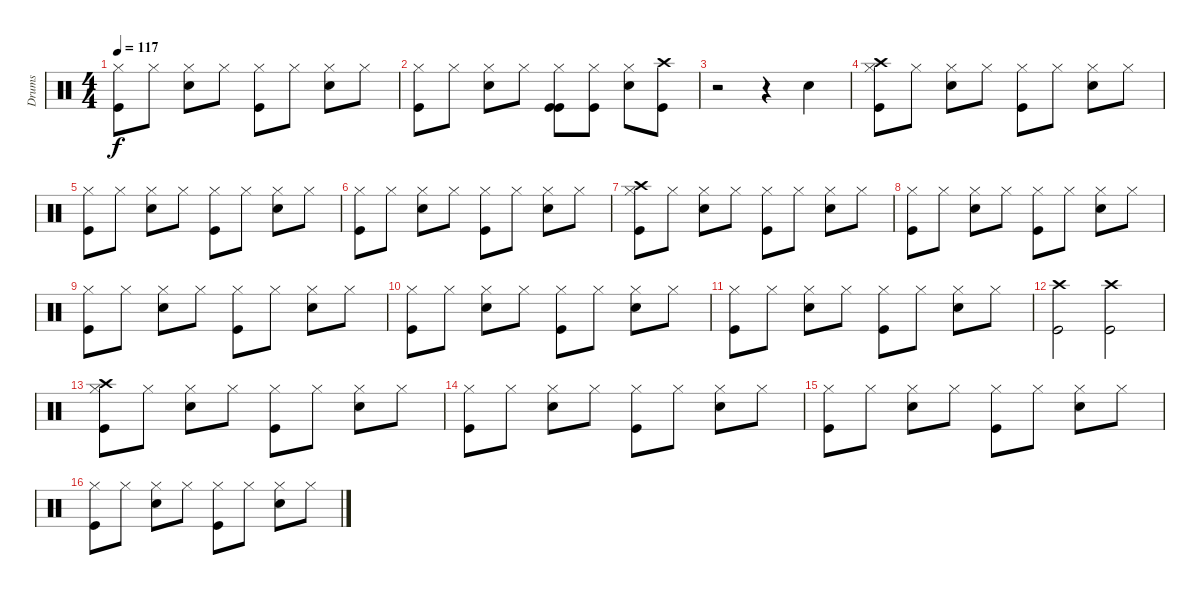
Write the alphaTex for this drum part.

\track ("Drums" "Drums") {instrument percussion}
\staff {score}
\articulation defaults
\ts (4 4)
\tempo 117
\clef neutral
\ks c
("Kick (hit)" "Hi-Hat (closed)").8{dy f} "Hi-Hat (closed)".8 ("Hi-Hat (closed)" "Snare (hit) 2").8 "Hi-Hat (closed)".8 ("Kick (hit)" "Hi-Hat (closed)").8 "Hi-Hat (closed)".8 ("Hi-Hat (closed)" "Snare (hit) 2").8 "Hi-Hat (closed)".8 |
("Kick (hit)" "Hi-Hat (closed)").8 "Hi-Hat (closed)".8 ("Hi-Hat (closed)" "Snare (hit) 2").8 "Hi-Hat (closed)".8 ("Kick (hit)" "Kick (hit)" "Hi-Hat (closed)").8 ("Kick (hit)" "Hi-Hat (closed)").8 ("Hi-Hat (closed)" "Snare (hit) 2").8 ("Kick (hit)" "Crash high (hit)").8 |
r.2 r.4 "Snare (hit) 2".4 |
("Kick (hit)" "Hi-Hat (closed)" "Crash high (hit)").8 "Hi-Hat (closed)".8 ("Hi-Hat (closed)" "Snare (hit) 2").8 "Hi-Hat (closed)".8 ("Kick (hit)" "Hi-Hat (closed)").8 "Hi-Hat (closed)".8 ("Hi-Hat (closed)" "Snare (hit) 2").8 "Hi-Hat (closed)".8 |
("Kick (hit)" "Hi-Hat (closed)").8 "Hi-Hat (closed)".8 ("Hi-Hat (closed)" "Snare (hit) 2").8 "Hi-Hat (closed)".8 ("Kick (hit)" "Hi-Hat (closed)").8 "Hi-Hat (closed)".8 ("Hi-Hat (closed)" "Snare (hit) 2").8 "Hi-Hat (closed)".8 |
("Kick (hit)" "Hi-Hat (closed)").8 "Hi-Hat (closed)".8 ("Hi-Hat (closed)" "Snare (hit) 2").8 "Hi-Hat (closed)".8 ("Kick (hit)" "Hi-Hat (closed)").8 "Hi-Hat (closed)".8 ("Hi-Hat (closed)" "Snare (hit) 2").8 "Hi-Hat (closed)".8 |
("Kick (hit)" "Hi-Hat (closed)" "Crash high (hit)").8 "Hi-Hat (closed)".8 ("Hi-Hat (closed)" "Snare (hit) 2").8 "Hi-Hat (closed)".8 ("Kick (hit)" "Hi-Hat (closed)").8 "Hi-Hat (closed)".8 ("Hi-Hat (closed)" "Snare (hit) 2").8 "Hi-Hat (closed)".8 |
("Kick (hit)" "Hi-Hat (closed)").8 "Hi-Hat (closed)".8 ("Hi-Hat (closed)" "Snare (hit) 2").8 "Hi-Hat (closed)".8 ("Kick (hit)" "Hi-Hat (closed)").8 "Hi-Hat (closed)".8 ("Hi-Hat (closed)" "Snare (hit) 2").8 "Hi-Hat (closed)".8 |
("Kick (hit)" "Hi-Hat (closed)").8 "Hi-Hat (closed)".8 ("Hi-Hat (closed)" "Snare (hit) 2").8 "Hi-Hat (closed)".8 ("Kick (hit)" "Hi-Hat (closed)").8 "Hi-Hat (closed)".8 ("Hi-Hat (closed)" "Snare (hit) 2").8 "Hi-Hat (closed)".8 |
("Kick (hit)" "Hi-Hat (closed)").8 "Hi-Hat (closed)".8 ("Hi-Hat (closed)" "Snare (hit) 2").8 "Hi-Hat (closed)".8 ("Kick (hit)" "Hi-Hat (closed)").8 "Hi-Hat (closed)".8 ("Hi-Hat (closed)" "Snare (hit) 2").8 "Hi-Hat (closed)".8 |
("Kick (hit)" "Hi-Hat (closed)").8 "Hi-Hat (closed)".8 ("Hi-Hat (closed)" "Snare (hit) 2").8 "Hi-Hat (closed)".8 ("Kick (hit)" "Hi-Hat (closed)").8 "Hi-Hat (closed)".8 ("Hi-Hat (closed)" "Snare (hit) 2").8 "Hi-Hat (closed)".8 |
("Kick (hit)" "Crash high (hit)").2 ("Kick (hit)" "Crash high (hit)").2 |
("Kick (hit)" "Hi-Hat (closed)" "Crash high (hit)").8 "Hi-Hat (closed)".8 ("Hi-Hat (closed)" "Snare (hit) 2").8 "Hi-Hat (closed)".8 ("Kick (hit)" "Hi-Hat (closed)").8 "Hi-Hat (closed)".8 ("Hi-Hat (closed)" "Snare (hit) 2").8 "Hi-Hat (closed)".8 |
("Kick (hit)" "Hi-Hat (closed)").8 "Hi-Hat (closed)".8 ("Hi-Hat (closed)" "Snare (hit) 2").8 "Hi-Hat (closed)".8 ("Kick (hit)" "Hi-Hat (closed)").8 "Hi-Hat (closed)".8 ("Hi-Hat (closed)" "Snare (hit) 2").8 "Hi-Hat (closed)".8 |
("Kick (hit)" "Hi-Hat (closed)").8 "Hi-Hat (closed)".8 ("Hi-Hat (closed)" "Snare (hit) 2").8 "Hi-Hat (closed)".8 ("Kick (hit)" "Hi-Hat (closed)").8 "Hi-Hat (closed)".8 ("Hi-Hat (closed)" "Snare (hit) 2").8 "Hi-Hat (closed)".8 |
("Kick (hit)" "Hi-Hat (closed)").8 "Hi-Hat (closed)".8 ("Hi-Hat (closed)" "Snare (hit) 2").8 "Hi-Hat (closed)".8 ("Kick (hit)" "Hi-Hat (closed)").8 "Hi-Hat (closed)".8 ("Hi-Hat (closed)" "Snare (hit) 2").8 "Hi-Hat (closed)".8
